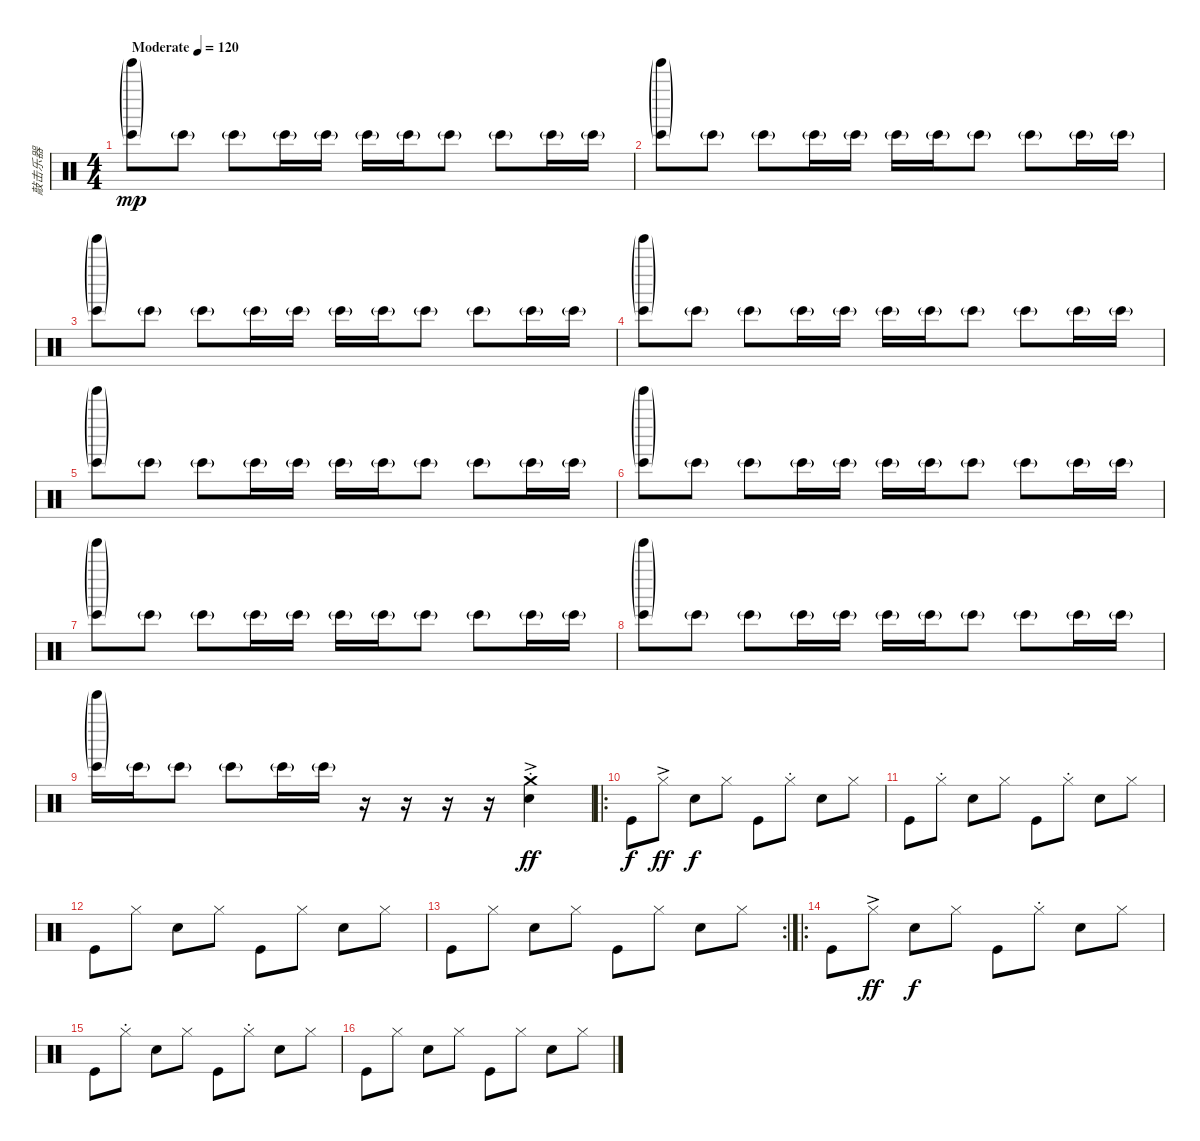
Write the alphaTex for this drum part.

\track ("敲击乐器" "敲击乐器") {instrument percussion}
\staff {score}
\articulation defaults
\ts (4 4)
\tempo (120 "Moderate")
\clef neutral
\ks c
("Bongo High (hit)"{g} "Tinkle Bell (hit)"{g}).8{dy mp} "Bongo High (hit)"{g}.8 "Bongo High (hit)"{g}.8 "Bongo High (hit)"{g}.16 "Bongo High (hit)"{g}.16 "Bongo High (hit)"{g}.16 "Bongo High (hit)"{g}.16 "Bongo High (hit)"{g}.8 "Bongo High (hit)"{g}.8 "Bongo High (hit)"{g}.16 "Bongo High (hit)"{g}.16 |
("Bongo High (hit)"{g} "Tinkle Bell (hit)"{g}).8 "Bongo High (hit)"{g}.8 "Bongo High (hit)"{g}.8 "Bongo High (hit)"{g}.16 "Bongo High (hit)"{g}.16 "Bongo High (hit)"{g}.16 "Bongo High (hit)"{g}.16 "Bongo High (hit)"{g}.8 "Bongo High (hit)"{g}.8 "Bongo High (hit)"{g}.16 "Bongo High (hit)"{g}.16 |
("Bongo High (hit)"{g} "Tinkle Bell (hit)"{g}).8 "Bongo High (hit)"{g}.8 "Bongo High (hit)"{g}.8 "Bongo High (hit)"{g}.16 "Bongo High (hit)"{g}.16 "Bongo High (hit)"{g}.16 "Bongo High (hit)"{g}.16 "Bongo High (hit)"{g}.8 "Bongo High (hit)"{g}.8 "Bongo High (hit)"{g}.16 "Bongo High (hit)"{g}.16 |
("Bongo High (hit)"{g} "Tinkle Bell (hit)"{g}).8 "Bongo High (hit)"{g}.8 "Bongo High (hit)"{g}.8 "Bongo High (hit)"{g}.16 "Bongo High (hit)"{g}.16 "Bongo High (hit)"{g}.16 "Bongo High (hit)"{g}.16 "Bongo High (hit)"{g}.8 "Bongo High (hit)"{g}.8 "Bongo High (hit)"{g}.16 "Bongo High (hit)"{g}.16 |
("Bongo High (hit)"{g} "Tinkle Bell (hit)"{g}).8 "Bongo High (hit)"{g}.8 "Bongo High (hit)"{g}.8 "Bongo High (hit)"{g}.16 "Bongo High (hit)"{g}.16 "Bongo High (hit)"{g}.16 "Bongo High (hit)"{g}.16 "Bongo High (hit)"{g}.8 "Bongo High (hit)"{g}.8 "Bongo High (hit)"{g}.16 "Bongo High (hit)"{g}.16 |
("Bongo High (hit)"{g} "Tinkle Bell (hit)"{g}).8 "Bongo High (hit)"{g}.8 "Bongo High (hit)"{g}.8 "Bongo High (hit)"{g}.16 "Bongo High (hit)"{g}.16 "Bongo High (hit)"{g}.16 "Bongo High (hit)"{g}.16 "Bongo High (hit)"{g}.8 "Bongo High (hit)"{g}.8 "Bongo High (hit)"{g}.16 "Bongo High (hit)"{g}.16 |
("Bongo High (hit)"{g} "Tinkle Bell (hit)"{g}).8 "Bongo High (hit)"{g}.8 "Bongo High (hit)"{g}.8 "Bongo High (hit)"{g}.16 "Bongo High (hit)"{g}.16 "Bongo High (hit)"{g}.16 "Bongo High (hit)"{g}.16 "Bongo High (hit)"{g}.8 "Bongo High (hit)"{g}.8 "Bongo High (hit)"{g}.16 "Bongo High (hit)"{g}.16 |
("Bongo High (hit)"{g} "Tinkle Bell (hit)"{g}).8 "Bongo High (hit)"{g}.8 "Bongo High (hit)"{g}.8 "Bongo High (hit)"{g}.16 "Bongo High (hit)"{g}.16 "Bongo High (hit)"{g}.16 "Bongo High (hit)"{g}.16 "Bongo High (hit)"{g}.8 "Bongo High (hit)"{g}.8 "Bongo High (hit)"{g}.16 "Bongo High (hit)"{g}.16 |
("Bongo High (hit)"{g} "Tinkle Bell (hit)"{g}).16 "Bongo High (hit)"{g}.16 "Bongo High (hit)"{g}.8 "Bongo High (hit)"{g}.8 "Bongo High (hit)"{g}.16 "Bongo High (hit)"{g}.16 r.16 r.16 r.16 r.16 ("Snare (hit) 2"{ac st} "Crash medium (hit)").4{dy ff} |
\ro "Kick (hit)".8{dy f} "Hi-Hat (closed)"{ac}.8{dy ff} "Snare (hit) 2".8{dy f} "Hi-Hat (closed)".8 "Kick (hit)".8 "Hi-Hat (closed)"{st}.8 "Snare (hit) 2".8 "Hi-Hat (closed)".8
|
"Kick (hit)".8 "Hi-Hat (closed)"{st}.8 "Snare (hit) 2".8 "Hi-Hat (closed)".8 "Kick (hit)".8 "Hi-Hat (closed)"{st}.8 "Snare (hit) 2".8 "Hi-Hat (closed)".8 |
"Kick (hit)".8 "Hi-Hat (closed)".8 "Snare (hit) 2".8 "Hi-Hat (closed)".8 "Kick (hit)".8 "Hi-Hat (closed)".8 "Snare (hit) 2".8 "Hi-Hat (closed)".8 |
\rc 2 "Kick (hit)".8 "Hi-Hat (closed)".8 "Snare (hit) 2".8 "Hi-Hat (closed)".8 "Kick (hit)".8 "Hi-Hat (closed)".8 "Snare (hit) 2".8 "Hi-Hat (closed)".8
|
\ro "Kick (hit)".8 "Hi-Hat (closed)"{ac}.8{dy ff} "Snare (hit) 2".8{dy f} "Hi-Hat (closed)".8 "Kick (hit)".8 "Hi-Hat (closed)"{st}.8 "Snare (hit) 2".8 "Hi-Hat (closed)".8
|
"Kick (hit)".8 "Hi-Hat (closed)"{st}.8 "Snare (hit) 2".8 "Hi-Hat (closed)".8 "Kick (hit)".8 "Hi-Hat (closed)"{st}.8 "Snare (hit) 2".8 "Hi-Hat (closed)".8 |
"Kick (hit)".8 "Hi-Hat (closed)".8 "Snare (hit) 2".8 "Hi-Hat (closed)".8 "Kick (hit)".8 "Hi-Hat (closed)".8 "Snare (hit) 2".8 "Hi-Hat (closed)".8
